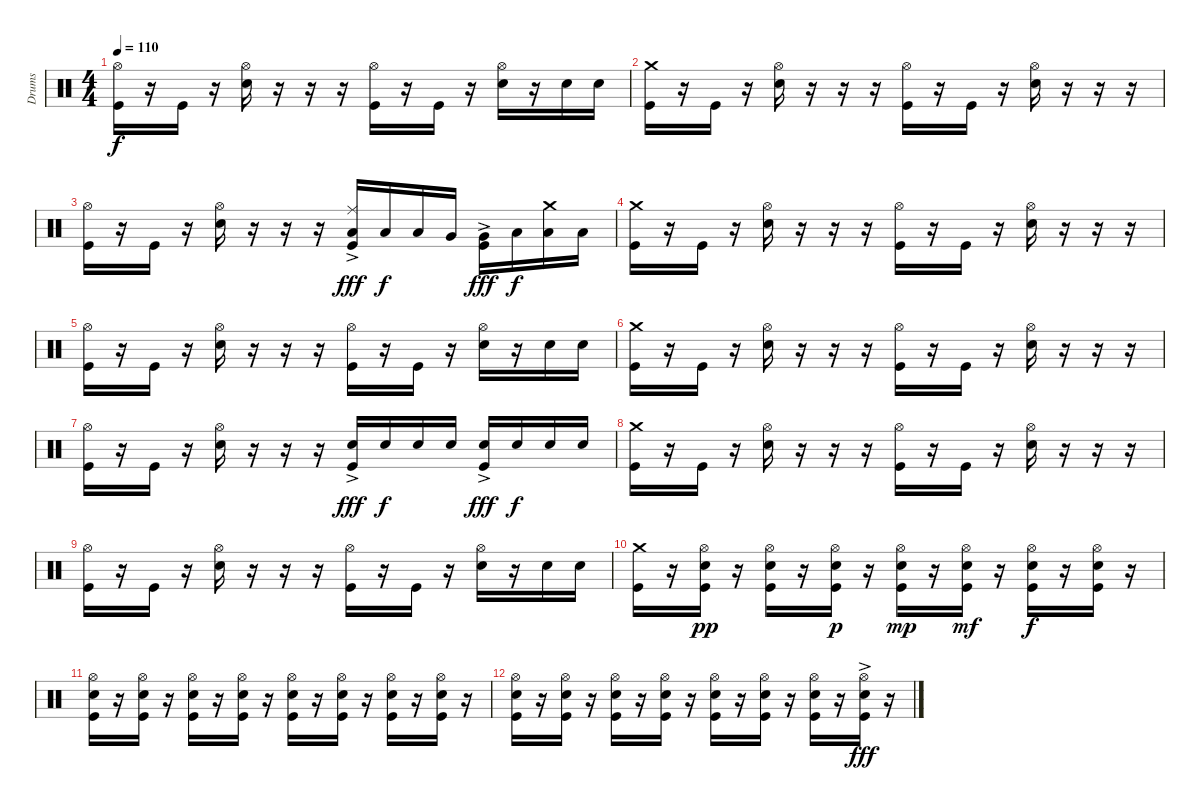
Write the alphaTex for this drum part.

\track ("Drums" "Drums") {instrument percussion}
\staff {score}
\articulation defaults
\ts (4 4)
\tempo 110
\clef neutral
\ks c
("Hi-Hat (open)" "Kick (hit)").16{dy f} r.16 "Kick (hit)".16 r.16 ("Hi-Hat (open)" "Snare (hit) 2").16 r.16 r.16 r.16 ("Hi-Hat (open)" "Kick (hit)").16 r.16 "Kick (hit)".16 r.16 ("Hi-Hat (open)" "Snare (hit) 2").16 r.16 "Snare (hit) 2".16 "Snare (hit) 2".16 |
("Crash medium (hit)" "Kick (hit)").16 r.16 "Kick (hit)".16 r.16 ("Hi-Hat (open)" "Snare (hit) 2").16 r.16 r.16 r.16 ("Hi-Hat (open)" "Kick (hit)").16 r.16 "Kick (hit)".16 r.16 ("Hi-Hat (open)" "Snare (hit) 2").16 r.16 r.16 r.16 |
("Hi-Hat (open)" "Kick (hit)").16 r.16 "Kick (hit)".16 r.16 ("Hi-Hat (open)" "Snare (hit) 2").16 r.16 r.16 r.16 ("Ride (middle)" "Low Tom (hit)" "Kick (hit)"{ac}).16{dy fff} "Low Tom (hit)".16{dy f} "Low Tom (hit)".16 "Very Low Tom (hit)".16 ("Very Low Tom (hit)" "Kick (hit)"{ac}).16{dy fff} "Low Floor Tom (hit)".16{dy f} ("Crash medium (hit)" "Low Floor Tom (hit)").16 "Low Floor Tom (hit)".16 |
("Crash medium (hit)" "Kick (hit)").16 r.16 "Kick (hit)".16 r.16 ("Hi-Hat (open)" "Snare (hit) 2").16 r.16 r.16 r.16 ("Hi-Hat (open)" "Kick (hit)").16 r.16 "Kick (hit)".16 r.16 ("Hi-Hat (open)" "Snare (hit) 2").16 r.16 r.16 r.16 |
("Hi-Hat (open)" "Kick (hit)").16 r.16 "Kick (hit)".16 r.16 ("Hi-Hat (open)" "Snare (hit) 2").16 r.16 r.16 r.16 ("Hi-Hat (open)" "Kick (hit)").16 r.16 "Kick (hit)".16 r.16 ("Hi-Hat (open)" "Snare (hit) 2").16 r.16 "Snare (hit) 2".16 "Snare (hit) 2".16 |
("Crash medium (hit)" "Kick (hit)").16 r.16 "Kick (hit)".16 r.16 ("Hi-Hat (open)" "Snare (hit) 2").16 r.16 r.16 r.16 ("Hi-Hat (open)" "Kick (hit)").16 r.16 "Kick (hit)".16 r.16 ("Hi-Hat (open)" "Snare (hit) 2").16 r.16 r.16 r.16 |
("Hi-Hat (open)" "Kick (hit)").16 r.16 "Kick (hit)".16 r.16 ("Hi-Hat (open)" "Snare (hit) 2").16 r.16 r.16 r.16 ("Snare (hit) 2" "Kick (hit)"{ac}).16{dy fff} "Snare (hit) 2".16{dy f} "Snare (hit) 2".16 "Snare (hit) 2".16 ("Snare (hit) 2" "Kick (hit)"{ac}).16{dy fff} "Snare (hit) 2".16{dy f} "Snare (hit) 2".16 "Snare (hit) 2".16 |
("Crash medium (hit)" "Kick (hit)").16 r.16 "Kick (hit)".16 r.16 ("Hi-Hat (open)" "Snare (hit) 2").16 r.16 r.16 r.16 ("Hi-Hat (open)" "Kick (hit)").16 r.16 "Kick (hit)".16 r.16 ("Hi-Hat (open)" "Snare (hit) 2").16 r.16 r.16 r.16 |
("Hi-Hat (open)" "Kick (hit)").16 r.16 "Kick (hit)".16 r.16 ("Hi-Hat (open)" "Snare (hit) 2").16 r.16 r.16 r.16 ("Hi-Hat (open)" "Kick (hit)").16 r.16 "Kick (hit)".16 r.16 ("Hi-Hat (open)" "Snare (hit) 2").16 r.16 "Snare (hit) 2".16 "Snare (hit) 2".16 |
("Crash medium (hit)" "Kick (hit)").16 r.16 ("Hi-Hat (open)" "Snare (hit) 2" "Kick (hit)").16{dy pp} r.16 ("Hi-Hat (open)" "Snare (hit) 2" "Kick (hit)").16 r.16 ("Hi-Hat (open)" "Snare (hit) 2" "Kick (hit)").16{dy p} r.16 ("Hi-Hat (open)" "Snare (hit) 2" "Kick (hit)").16{dy mp} r.16 ("Hi-Hat (open)" "Snare (hit) 2" "Kick (hit)").16{dy mf} r.16 ("Hi-Hat (open)" "Snare (hit) 2" "Kick (hit)").16{dy f} r.16 ("Hi-Hat (open)" "Snare (hit) 2" "Kick (hit)").16 r.16 |
("Hi-Hat (open)" "Snare (hit) 2" "Kick (hit)").16 r.16 ("Hi-Hat (open)" "Snare (hit) 2" "Kick (hit)").16 r.16 ("Hi-Hat (open)" "Snare (hit) 2" "Kick (hit)").16 r.16 ("Hi-Hat (open)" "Snare (hit) 2" "Kick (hit)").16 r.16 ("Hi-Hat (open)" "Snare (hit) 2" "Kick (hit)").16 r.16 ("Hi-Hat (open)" "Snare (hit) 2" "Kick (hit)").16 r.16 ("Hi-Hat (open)" "Snare (hit) 2" "Kick (hit)").16 r.16 ("Hi-Hat (open)" "Snare (hit) 2" "Kick (hit)").16 r.16 |
("Hi-Hat (open)" "Snare (hit) 2" "Kick (hit)").16 r.16 ("Hi-Hat (open)" "Snare (hit) 2" "Kick (hit)").16 r.16 ("Hi-Hat (open)" "Snare (hit) 2" "Kick (hit)").16 r.16 ("Hi-Hat (open)" "Snare (hit) 2" "Kick (hit)").16 r.16 ("Hi-Hat (open)" "Snare (hit) 2" "Kick (hit)").16 r.16 ("Hi-Hat (open)" "Snare (hit) 2" "Kick (hit)").16 r.16 ("Hi-Hat (open)" "Snare (hit) 2" "Kick (hit)").16 r.16 ("Hi-Hat (open)" "Snare (hit) 2"{ac} "Kick (hit)").16{dy fff} r.16
